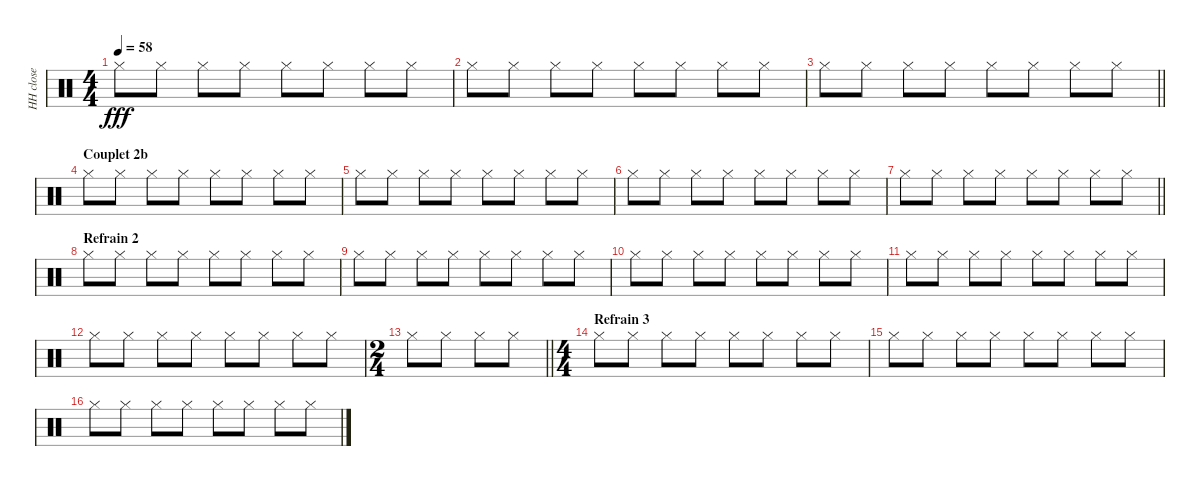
\track ("HH close" "HH close") {instrument percussion}
\staff {score}
\articulation defaults
\ts (4 4)
\tempo 58
\clef neutral
\ks c "Hi-Hat (closed)".8{dy fff} "Hi-Hat (closed)".8 "Hi-Hat (closed)".8 "Hi-Hat (closed)".8 "Hi-Hat (closed)".8 "Hi-Hat (closed)".8 "Hi-Hat (closed)".8 "Hi-Hat (closed)".8
|
"Hi-Hat (closed)".8 "Hi-Hat (closed)".8 "Hi-Hat (closed)".8 "Hi-Hat (closed)".8 "Hi-Hat (closed)".8 "Hi-Hat (closed)".8 "Hi-Hat (closed)".8 "Hi-Hat (closed)".8 |
\barLineRight lightlight "Hi-Hat (closed)".8 "Hi-Hat (closed)".8 "Hi-Hat (closed)".8 "Hi-Hat (closed)".8 "Hi-Hat (closed)".8 "Hi-Hat (closed)".8 "Hi-Hat (closed)".8 "Hi-Hat (closed)".8
|
\section ("" "Couplet 2b")
"Hi-Hat (closed)".8 "Hi-Hat (closed)".8 "Hi-Hat (closed)".8 "Hi-Hat (closed)".8 "Hi-Hat (closed)".8 "Hi-Hat (closed)".8 "Hi-Hat (closed)".8 "Hi-Hat (closed)".8 |
"Hi-Hat (closed)".8 "Hi-Hat (closed)".8 "Hi-Hat (closed)".8 "Hi-Hat (closed)".8 "Hi-Hat (closed)".8 "Hi-Hat (closed)".8 "Hi-Hat (closed)".8 "Hi-Hat (closed)".8 |
"Hi-Hat (closed)".8 "Hi-Hat (closed)".8 "Hi-Hat (closed)".8 "Hi-Hat (closed)".8 "Hi-Hat (closed)".8 "Hi-Hat (closed)".8 "Hi-Hat (closed)".8 "Hi-Hat (closed)".8 |
\barLineRight lightlight "Hi-Hat (closed)".8 "Hi-Hat (closed)".8 "Hi-Hat (closed)".8 "Hi-Hat (closed)".8 "Hi-Hat (closed)".8 "Hi-Hat (closed)".8 "Hi-Hat (closed)".8 "Hi-Hat (closed)".8
|
\section ("" "Refrain 2")
"Hi-Hat (closed)".8 "Hi-Hat (closed)".8 "Hi-Hat (closed)".8 "Hi-Hat (closed)".8 "Hi-Hat (closed)".8 "Hi-Hat (closed)".8 "Hi-Hat (closed)".8 "Hi-Hat (closed)".8 |
"Hi-Hat (closed)".8 "Hi-Hat (closed)".8 "Hi-Hat (closed)".8 "Hi-Hat (closed)".8 "Hi-Hat (closed)".8 "Hi-Hat (closed)".8 "Hi-Hat (closed)".8 "Hi-Hat (closed)".8 |
"Hi-Hat (closed)".8 "Hi-Hat (closed)".8 "Hi-Hat (closed)".8 "Hi-Hat (closed)".8 "Hi-Hat (closed)".8 "Hi-Hat (closed)".8 "Hi-Hat (closed)".8 "Hi-Hat (closed)".8 |
"Hi-Hat (closed)".8 "Hi-Hat (closed)".8 "Hi-Hat (closed)".8 "Hi-Hat (closed)".8 "Hi-Hat (closed)".8 "Hi-Hat (closed)".8 "Hi-Hat (closed)".8 "Hi-Hat (closed)".8 |
"Hi-Hat (closed)".8 "Hi-Hat (closed)".8 "Hi-Hat (closed)".8 "Hi-Hat (closed)".8 "Hi-Hat (closed)".8 "Hi-Hat (closed)".8 "Hi-Hat (closed)".8 "Hi-Hat (closed)".8 |
\ts (2 4)
\barLineRight lightlight "Hi-Hat (closed)".8 "Hi-Hat (closed)".8 "Hi-Hat (closed)".8 "Hi-Hat (closed)".8
|
\ts (4 4)
\section ("" "Refrain 3")
"Hi-Hat (closed)".8 "Hi-Hat (closed)".8 "Hi-Hat (closed)".8 "Hi-Hat (closed)".8 "Hi-Hat (closed)".8 "Hi-Hat (closed)".8 "Hi-Hat (closed)".8 "Hi-Hat (closed)".8 |
"Hi-Hat (closed)".8 "Hi-Hat (closed)".8 "Hi-Hat (closed)".8 "Hi-Hat (closed)".8 "Hi-Hat (closed)".8 "Hi-Hat (closed)".8 "Hi-Hat (closed)".8 "Hi-Hat (closed)".8 |
"Hi-Hat (closed)".8 "Hi-Hat (closed)".8 "Hi-Hat (closed)".8 "Hi-Hat (closed)".8 "Hi-Hat (closed)".8 "Hi-Hat (closed)".8 "Hi-Hat (closed)".8 "Hi-Hat (closed)".8
